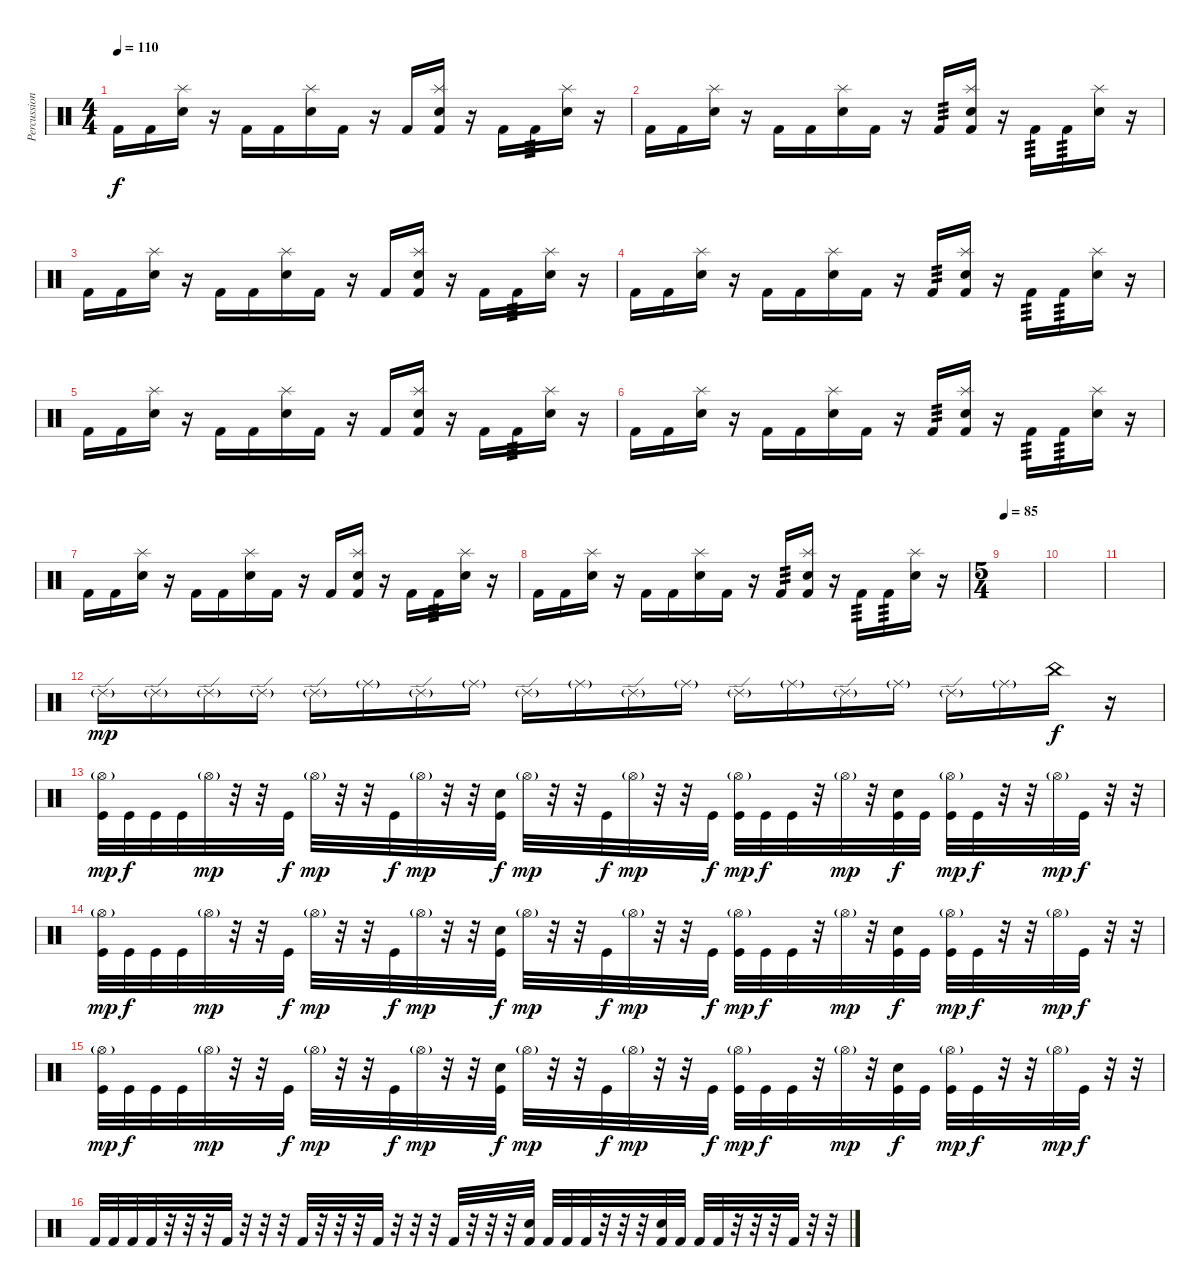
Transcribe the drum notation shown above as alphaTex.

\track ("Percussion" "Percussion") {instrument percussion}
\staff {score}
\articulation defaults
\ts (4 4)
\tempo 110
\clef neutral
\ks c "Kick (hit) 2".16{dy f} "Kick (hit) 2".16
("Splash (hit)" "Electric Snare (hit)").16 r.16 "Kick (hit) 2".16 "Kick (hit) 2".16 ("Splash (hit)" "Electric Snare (hit)").16 "Kick (hit) 2".16 r.16 "Kick (hit) 2".16 ("Splash (hit)" "Electric Snare (hit)" "Kick (hit) 2").16 r.16 "Kick (hit) 2".16 "Kick (hit) 2".16{tp 3} ("Splash (hit)" "Electric Snare (hit)").16 r.16 |
"Kick (hit) 2".16 "Kick (hit) 2".16 ("Splash (hit)" "Electric Snare (hit)").16 r.16 "Kick (hit) 2".16 "Kick (hit) 2".16 ("Splash (hit)" "Electric Snare (hit)").16 "Kick (hit) 2".16 r.16 "Kick (hit) 2".16{tp 3} ("Splash (hit)" "Electric Snare (hit)" "Kick (hit) 2").16 r.16 "Kick (hit) 2".16{tp 3} "Kick (hit) 2".16{tp 3} ("Splash (hit)" "Electric Snare (hit)").16 r.16 |
"Kick (hit) 2".16 "Kick (hit) 2".16 ("Splash (hit)" "Electric Snare (hit)").16 r.16 "Kick (hit) 2".16 "Kick (hit) 2".16 ("Splash (hit)" "Electric Snare (hit)").16 "Kick (hit) 2".16 r.16 "Kick (hit) 2".16 ("Splash (hit)" "Electric Snare (hit)" "Kick (hit) 2").16 r.16 "Kick (hit) 2".16 "Kick (hit) 2".16{tp 3} ("Splash (hit)" "Electric Snare (hit)").16 r.16 |
"Kick (hit) 2".16 "Kick (hit) 2".16 ("Splash (hit)" "Electric Snare (hit)").16 r.16 "Kick (hit) 2".16 "Kick (hit) 2".16 ("Splash (hit)" "Electric Snare (hit)").16 "Kick (hit) 2".16 r.16 "Kick (hit) 2".16{tp 3} ("Splash (hit)" "Electric Snare (hit)" "Kick (hit) 2").16 r.16 "Kick (hit) 2".16{tp 3} "Kick (hit) 2".16{tp 3} ("Splash (hit)" "Electric Snare (hit)").16 r.16 |
"Kick (hit) 2".16 "Kick (hit) 2".16 ("Splash (hit)" "Electric Snare (hit)").16 r.16 "Kick (hit) 2".16 "Kick (hit) 2".16 ("Splash (hit)" "Electric Snare (hit)").16 "Kick (hit) 2".16 r.16 "Kick (hit) 2".16 ("Splash (hit)" "Electric Snare (hit)" "Kick (hit) 2").16 r.16 "Kick (hit) 2".16 "Kick (hit) 2".16{tp 3} ("Splash (hit)" "Electric Snare (hit)").16 r.16 |
"Kick (hit) 2".16 "Kick (hit) 2".16 ("Splash (hit)" "Electric Snare (hit)").16 r.16 "Kick (hit) 2".16 "Kick (hit) 2".16 ("Splash (hit)" "Electric Snare (hit)").16 "Kick (hit) 2".16 r.16 "Kick (hit) 2".16{tp 3} ("Splash (hit)" "Electric Snare (hit)" "Kick (hit) 2").16 r.16 "Kick (hit) 2".16{tp 3} "Kick (hit) 2".16{tp 3} ("Splash (hit)" "Electric Snare (hit)").16 r.16 |
"Kick (hit) 2".16 "Kick (hit) 2".16 ("Splash (hit)" "Electric Snare (hit)").16 r.16 "Kick (hit) 2".16 "Kick (hit) 2".16 ("Splash (hit)" "Electric Snare (hit)").16 "Kick (hit) 2".16 r.16 "Kick (hit) 2".16 ("Splash (hit)" "Electric Snare (hit)" "Kick (hit) 2").16 r.16 "Kick (hit) 2".16 "Kick (hit) 2".16{tp 3} ("Splash (hit)" "Electric Snare (hit)").16 r.16 |
"Kick (hit) 2".16 "Kick (hit) 2".16 ("Splash (hit)" "Electric Snare (hit)").16 r.16 "Kick (hit) 2".16 "Kick (hit) 2".16 ("Splash (hit)" "Electric Snare (hit)").16 "Kick (hit) 2".16 r.16 "Kick (hit) 2".16{tp 3} ("Splash (hit)" "Electric Snare (hit)" "Kick (hit) 2").16 r.16 "Kick (hit) 2".16{tp 3} "Kick (hit) 2".16{tp 3} ("Splash (hit)" "Electric Snare (hit)").16 r.16 |
\ts (5 4)
\tempo 85
|
|
|
"Ride (edge) 2"{g}.16{dy mp volume 16} "Ride (edge) 2"{g}.16 "Ride (edge) 2"{g}.16 "Ride (edge) 2"{g}.16 "Ride (edge) 2"{g}.16 "Ride (middle)"{g}.16 "Ride (edge) 2"{g}.16 "Ride (middle)"{g}.16 "Ride (edge) 2"{g}.16 "Ride (middle)"{g}.16 "Ride (edge) 2"{g}.16 "Ride (middle)"{g}.16 "Ride (edge) 2"{g}.16 "Ride (middle)"{g}.16 "Ride (edge) 2"{g}.16 "Ride (middle)"{g}.16 "Ride (edge) 2"{g}.16 "Ride (middle)"{g}.16 "China (hit)".16{dy f} r.16 |
("Hi-Hat (open)"{g} "Kick (hit)").32{dy mp} "Kick (hit)".32{dy f} "Kick (hit)".32 "Kick (hit)".32 "Hi-Hat (open)"{g}.32{dy mp} r.32 r.32 "Kick (hit)".32{dy f} "Hi-Hat (open)"{g}.32{dy mp} r.32 r.32 "Kick (hit)".32{dy f} "Hi-Hat (open)"{g}.32{dy mp} r.32 r.32 ("Electric Snare (hit)" "Kick (hit)").32{dy f} "Hi-Hat (open)"{g}.32{dy mp} r.32 r.32 "Kick (hit)".32{dy f} "Hi-Hat (open)"{g}.32{dy mp} r.32 r.32 "Kick (hit)".32{dy f} ("Hi-Hat (open)"{g} "Kick (hit)").32{dy mp} "Kick (hit)".32{dy f} "Kick (hit)".32 r.32 "Hi-Hat (open)"{g}.32{dy mp} r.32 ("Electric Snare (hit)" "Kick (hit)").32{dy f} "Kick (hit)".32 ("Hi-Hat (open)"{g} "Kick (hit)").32{dy mp} "Kick (hit)".32{dy f} r.32 r.32 "Hi-Hat (open)"{g}.32{dy mp} "Kick (hit)".32{dy f} r.32 r.32 |
("Hi-Hat (open)"{g} "Kick (hit)").32{dy mp} "Kick (hit)".32{dy f} "Kick (hit)".32 "Kick (hit)".32 "Hi-Hat (open)"{g}.32{dy mp} r.32 r.32 "Kick (hit)".32{dy f} "Hi-Hat (open)"{g}.32{dy mp} r.32 r.32 "Kick (hit)".32{dy f} "Hi-Hat (open)"{g}.32{dy mp} r.32 r.32 ("Electric Snare (hit)" "Kick (hit)").32{dy f} "Hi-Hat (open)"{g}.32{dy mp} r.32 r.32 "Kick (hit)".32{dy f} "Hi-Hat (open)"{g}.32{dy mp} r.32 r.32 "Kick (hit)".32{dy f} ("Hi-Hat (open)"{g} "Kick (hit)").32{dy mp} "Kick (hit)".32{dy f} "Kick (hit)".32 r.32 "Hi-Hat (open)"{g}.32{dy mp} r.32 ("Electric Snare (hit)" "Kick (hit)").32{dy f} "Kick (hit)".32 ("Hi-Hat (open)"{g} "Kick (hit)").32{dy mp} "Kick (hit)".32{dy f} r.32 r.32 "Hi-Hat (open)"{g}.32{dy mp} "Kick (hit)".32{dy f} r.32 r.32 |
("Hi-Hat (open)"{g} "Kick (hit)").32{dy mp} "Kick (hit)".32{dy f} "Kick (hit)".32 "Kick (hit)".32 "Hi-Hat (open)"{g}.32{dy mp} r.32 r.32 "Kick (hit)".32{dy f} "Hi-Hat (open)"{g}.32{dy mp} r.32 r.32 "Kick (hit)".32{dy f} "Hi-Hat (open)"{g}.32{dy mp} r.32 r.32 ("Electric Snare (hit)" "Kick (hit)").32{dy f} "Hi-Hat (open)"{g}.32{dy mp} r.32 r.32 "Kick (hit)".32{dy f} "Hi-Hat (open)"{g}.32{dy mp} r.32 r.32 "Kick (hit)".32{dy f} ("Hi-Hat (open)"{g} "Kick (hit)").32{dy mp} "Kick (hit)".32{dy f} "Kick (hit)".32 r.32 "Hi-Hat (open)"{g}.32{dy mp} r.32 ("Electric Snare (hit)" "Kick (hit)").32{dy f} "Kick (hit)".32 ("Hi-Hat (open)"{g} "Kick (hit)").32{dy mp} "Kick (hit)".32{dy f} r.32 r.32 "Hi-Hat (open)"{g}.32{dy mp} "Kick (hit)".32{dy f} r.32 r.32 |
"Kick (hit) 2".32 "Kick (hit) 2".32 "Kick (hit) 2".32 "Kick (hit) 2".32 r.32 r.32 r.32 "Kick (hit) 2".32 r.32 r.32 r.32 "Kick (hit) 2".32 r.32 r.32 r.32 "Kick (hit) 2".32 r.32 r.32 r.32 "Kick (hit) 2".32 r.32 r.32 r.32 ("Electric Snare (hit)" "Kick (hit) 2").32 "Kick (hit) 2".32 "Kick (hit) 2".32 "Kick (hit) 2".32 r.32 r.32 r.32 ("Electric Snare (hit)" "Kick (hit) 2").32 "Kick (hit) 2".32 "Kick (hit) 2".32 "Kick (hit) 2".32 r.32 r.32 r.32 "Kick (hit) 2".32 r.32 r.32
